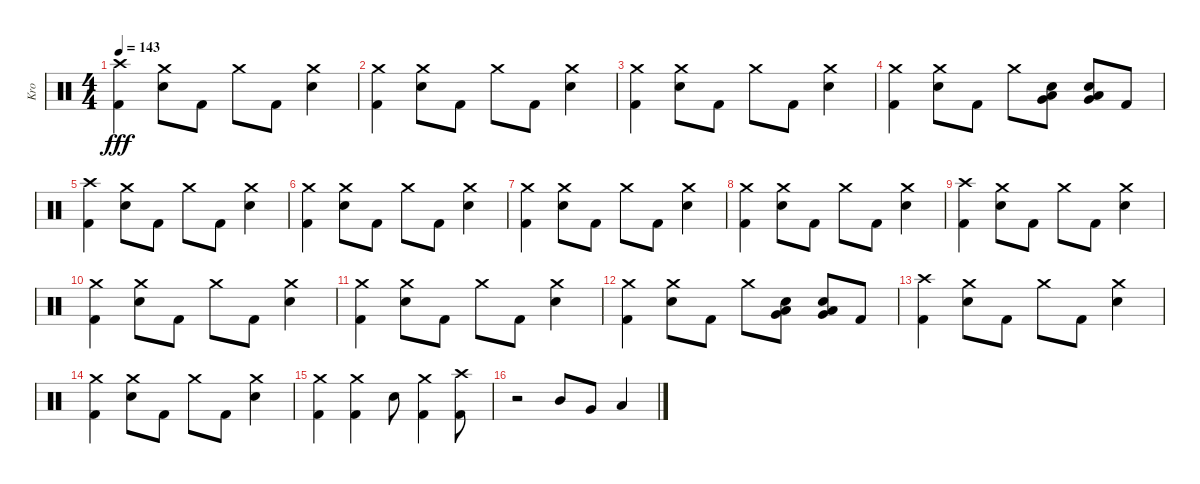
\track ("Kro" "Kro") {instrument percussion}
\staff {score}
\articulation defaults
\ts (4 4)
\tempo 143
\clef neutral
\ks c
("Crash high (hit)" "Kick (hit) 2").4{dy fff} ("Crash medium (hit)" "Electric Snare (hit)").8 "Kick (hit) 2".8 "Crash medium (hit)".8 "Kick (hit) 2".8 ("Crash medium (hit)" "Electric Snare (hit)").4 |
("Crash medium (hit)" "Kick (hit) 2").4 ("Crash medium (hit)" "Electric Snare (hit)").8 "Kick (hit) 2".8 "Crash medium (hit)".8 "Kick (hit) 2".8 ("Crash medium (hit)" "Electric Snare (hit)").4 |
("Crash medium (hit)" "Kick (hit) 2").4 ("Crash medium (hit)" "Electric Snare (hit)").8 "Kick (hit) 2".8 "Crash medium (hit)".8 "Kick (hit) 2".8 ("Crash medium (hit)" "Electric Snare (hit)").4 |
("Crash medium (hit)" "Kick (hit) 2").4 ("Crash medium (hit)" "Electric Snare (hit)").8 "Kick (hit) 2".8 "Crash medium (hit)".8 ("Electric Snare (hit)" "Low Tom (hit)" "Very Low Tom (hit)").8 ("Electric Snare (hit)" "Low Tom (hit)" "Very Low Tom (hit)").8 "Kick (hit) 2".8 |
("Crash high (hit)" "Kick (hit) 2").4 ("Crash medium (hit)" "Electric Snare (hit)").8 "Kick (hit) 2".8 "Crash medium (hit)".8 "Kick (hit) 2".8 ("Crash medium (hit)" "Electric Snare (hit)").4 |
("Crash medium (hit)" "Kick (hit) 2").4 ("Crash medium (hit)" "Electric Snare (hit)").8 "Kick (hit) 2".8 "Crash medium (hit)".8 "Kick (hit) 2".8 ("Crash medium (hit)" "Electric Snare (hit)").4 |
("Crash medium (hit)" "Kick (hit) 2").4 ("Crash medium (hit)" "Electric Snare (hit)").8 "Kick (hit) 2".8 "Crash medium (hit)".8 "Kick (hit) 2".8 ("Crash medium (hit)" "Electric Snare (hit)").4 |
("Crash medium (hit)" "Kick (hit) 2").4 ("Crash medium (hit)" "Electric Snare (hit)").8 "Kick (hit) 2".8 "Crash medium (hit)".8 "Kick (hit) 2".8 ("Crash medium (hit)" "Electric Snare (hit)").4 |
("Crash high (hit)" "Kick (hit) 2").4 ("Crash medium (hit)" "Electric Snare (hit)").8 "Kick (hit) 2".8 "Crash medium (hit)".8 "Kick (hit) 2".8 ("Crash medium (hit)" "Electric Snare (hit)").4 |
("Crash medium (hit)" "Kick (hit) 2").4 ("Crash medium (hit)" "Electric Snare (hit)").8 "Kick (hit) 2".8 "Crash medium (hit)".8 "Kick (hit) 2".8 ("Crash medium (hit)" "Electric Snare (hit)").4 |
("Crash medium (hit)" "Kick (hit) 2").4 ("Crash medium (hit)" "Electric Snare (hit)").8 "Kick (hit) 2".8 "Crash medium (hit)".8 "Kick (hit) 2".8 ("Crash medium (hit)" "Electric Snare (hit)").4 |
("Crash medium (hit)" "Kick (hit) 2").4 ("Crash medium (hit)" "Electric Snare (hit)").8 "Kick (hit) 2".8 "Crash medium (hit)".8 ("Electric Snare (hit)" "Low Tom (hit)" "Very Low Tom (hit)").8 ("Electric Snare (hit)" "Low Tom (hit)" "Very Low Tom (hit)").8 "Kick (hit) 2".8 |
("Crash high (hit)" "Kick (hit) 2").4 ("Crash medium (hit)" "Electric Snare (hit)").8 "Kick (hit) 2".8 "Crash medium (hit)".8 "Kick (hit) 2".8 ("Crash medium (hit)" "Electric Snare (hit)").4 |
("Crash medium (hit)" "Kick (hit) 2").4 ("Crash medium (hit)" "Electric Snare (hit)").8 "Kick (hit) 2".8 "Crash medium (hit)".8 "Kick (hit) 2".8 ("Crash medium (hit)" "Electric Snare (hit)").4 |
("Crash medium (hit)" "Kick (hit) 2").4 ("Crash medium (hit)" "Kick (hit) 2").4 "Electric Snare (hit)".8 ("Crash medium (hit)" "Kick (hit) 2").4 ("Crash high (hit)" "Kick (hit) 2").8 |
r.2 "Mid Tom (hit)".8 "Very Low Tom (hit)".8 "Low Tom (hit)".4
